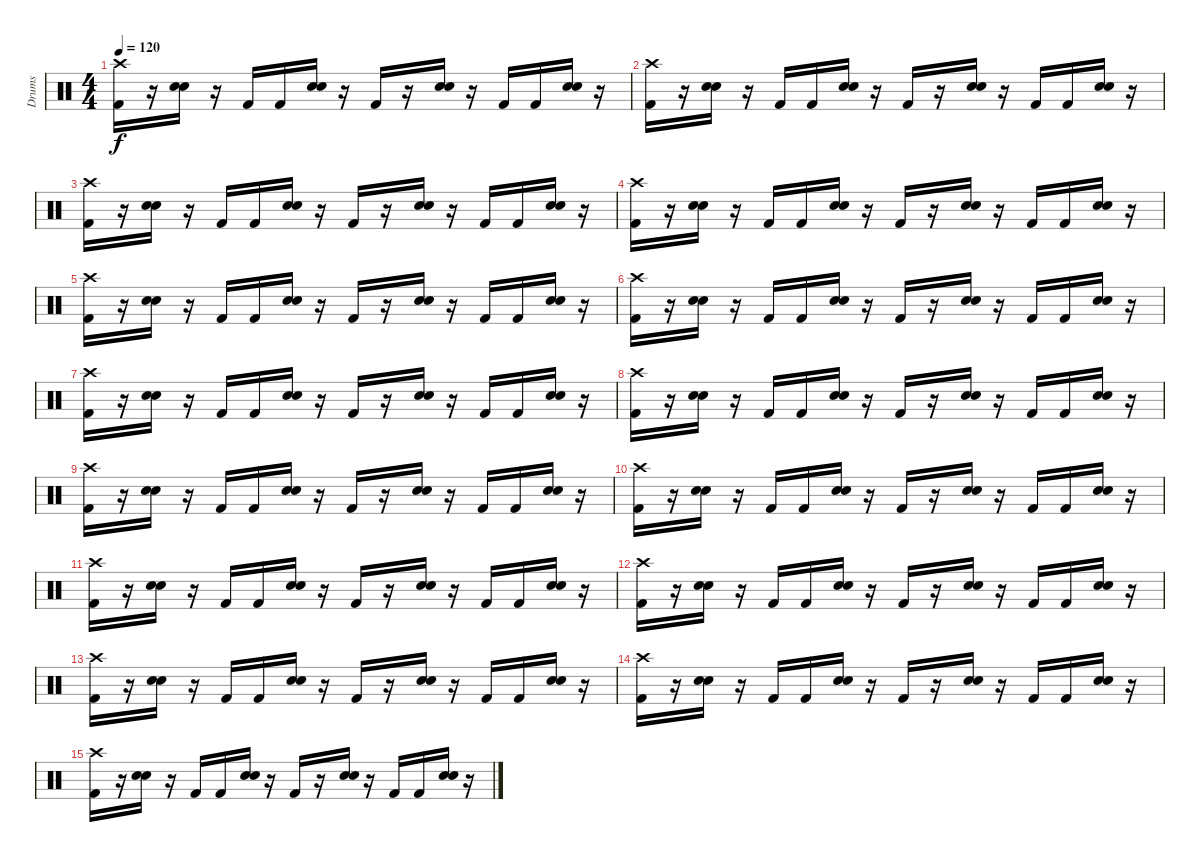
\track ("Drums" "Drums") {instrument percussion}
\staff {score}
\articulation defaults
\ts (4 4)
\tempo 120
\clef neutral
\ks c
("Crash high (hit)" "Kick (hit) 2").16{dy f} r.16 ("Snare (hit) 2" "Snare (hit) 2").16 r.16 "Kick (hit) 2".16 "Kick (hit) 2".16 ("Snare (hit) 2" "Snare (hit) 2").16 r.16 "Kick (hit) 2".16 r.16 ("Snare (hit) 2" "Snare (hit) 2").16 r.16 "Kick (hit) 2".16 "Kick (hit) 2".16 ("Snare (hit) 2" "Snare (hit) 2").16 r.16 |
("Crash high (hit)" "Kick (hit) 2").16 r.16 ("Snare (hit) 2" "Snare (hit) 2").16 r.16 "Kick (hit) 2".16 "Kick (hit) 2".16 ("Snare (hit) 2" "Snare (hit) 2").16 r.16 "Kick (hit) 2".16 r.16 ("Snare (hit) 2" "Snare (hit) 2").16 r.16 "Kick (hit) 2".16 "Kick (hit) 2".16 ("Snare (hit) 2" "Snare (hit) 2").16 r.16 |
("Crash high (hit)" "Kick (hit) 2").16 r.16 ("Snare (hit) 2" "Snare (hit) 2").16 r.16 "Kick (hit) 2".16 "Kick (hit) 2".16 ("Snare (hit) 2" "Snare (hit) 2").16 r.16 "Kick (hit) 2".16 r.16 ("Snare (hit) 2" "Snare (hit) 2").16 r.16 "Kick (hit) 2".16 "Kick (hit) 2".16 ("Snare (hit) 2" "Snare (hit) 2").16 r.16 |
("Crash high (hit)" "Kick (hit) 2").16 r.16 ("Snare (hit) 2" "Snare (hit) 2").16 r.16 "Kick (hit) 2".16 "Kick (hit) 2".16 ("Snare (hit) 2" "Snare (hit) 2").16 r.16 "Kick (hit) 2".16 r.16 ("Snare (hit) 2" "Snare (hit) 2").16 r.16 "Kick (hit) 2".16 "Kick (hit) 2".16 ("Snare (hit) 2" "Snare (hit) 2").16 r.16 |
("Crash high (hit)" "Kick (hit) 2").16 r.16 ("Snare (hit) 2" "Snare (hit) 2").16 r.16 "Kick (hit) 2".16 "Kick (hit) 2".16 ("Snare (hit) 2" "Snare (hit) 2").16 r.16 "Kick (hit) 2".16 r.16 ("Snare (hit) 2" "Snare (hit) 2").16 r.16 "Kick (hit) 2".16 "Kick (hit) 2".16 ("Snare (hit) 2" "Snare (hit) 2").16 r.16 |
("Crash high (hit)" "Kick (hit) 2").16 r.16 ("Snare (hit) 2" "Snare (hit) 2").16 r.16 "Kick (hit) 2".16 "Kick (hit) 2".16 ("Snare (hit) 2" "Snare (hit) 2").16 r.16 "Kick (hit) 2".16 r.16 ("Snare (hit) 2" "Snare (hit) 2").16 r.16 "Kick (hit) 2".16 "Kick (hit) 2".16 ("Snare (hit) 2" "Snare (hit) 2").16 r.16 |
("Crash high (hit)" "Kick (hit) 2").16 r.16 ("Snare (hit) 2" "Snare (hit) 2").16 r.16 "Kick (hit) 2".16 "Kick (hit) 2".16 ("Snare (hit) 2" "Snare (hit) 2").16 r.16 "Kick (hit) 2".16 r.16 ("Snare (hit) 2" "Snare (hit) 2").16 r.16 "Kick (hit) 2".16 "Kick (hit) 2".16 ("Snare (hit) 2" "Snare (hit) 2").16 r.16 |
("Crash high (hit)" "Kick (hit) 2").16 r.16 ("Snare (hit) 2" "Snare (hit) 2").16 r.16 "Kick (hit) 2".16 "Kick (hit) 2".16 ("Snare (hit) 2" "Snare (hit) 2").16 r.16 "Kick (hit) 2".16 r.16 ("Snare (hit) 2" "Snare (hit) 2").16 r.16 "Kick (hit) 2".16 "Kick (hit) 2".16 ("Snare (hit) 2" "Snare (hit) 2").16 r.16 |
("Crash high (hit)" "Kick (hit) 2").16 r.16 ("Snare (hit) 2" "Snare (hit) 2").16 r.16 "Kick (hit) 2".16 "Kick (hit) 2".16 ("Snare (hit) 2" "Snare (hit) 2").16 r.16 "Kick (hit) 2".16 r.16 ("Snare (hit) 2" "Snare (hit) 2").16 r.16 "Kick (hit) 2".16 "Kick (hit) 2".16 ("Snare (hit) 2" "Snare (hit) 2").16 r.16 |
("Crash high (hit)" "Kick (hit) 2").16 r.16 ("Snare (hit) 2" "Snare (hit) 2").16 r.16 "Kick (hit) 2".16 "Kick (hit) 2".16 ("Snare (hit) 2" "Snare (hit) 2").16 r.16 "Kick (hit) 2".16 r.16 ("Snare (hit) 2" "Snare (hit) 2").16 r.16 "Kick (hit) 2".16 "Kick (hit) 2".16 ("Snare (hit) 2" "Snare (hit) 2").16 r.16 |
("Crash high (hit)" "Kick (hit) 2").16 r.16 ("Snare (hit) 2" "Snare (hit) 2").16 r.16 "Kick (hit) 2".16 "Kick (hit) 2".16 ("Snare (hit) 2" "Snare (hit) 2").16 r.16 "Kick (hit) 2".16 r.16 ("Snare (hit) 2" "Snare (hit) 2").16 r.16 "Kick (hit) 2".16 "Kick (hit) 2".16 ("Snare (hit) 2" "Snare (hit) 2").16 r.16 |
("Crash high (hit)" "Kick (hit) 2").16 r.16 ("Snare (hit) 2" "Snare (hit) 2").16 r.16 "Kick (hit) 2".16 "Kick (hit) 2".16 ("Snare (hit) 2" "Snare (hit) 2").16 r.16 "Kick (hit) 2".16 r.16 ("Snare (hit) 2" "Snare (hit) 2").16 r.16 "Kick (hit) 2".16 "Kick (hit) 2".16 ("Snare (hit) 2" "Snare (hit) 2").16 r.16 |
("Crash high (hit)" "Kick (hit) 2").16 r.16 ("Snare (hit) 2" "Snare (hit) 2").16 r.16 "Kick (hit) 2".16 "Kick (hit) 2".16 ("Snare (hit) 2" "Snare (hit) 2").16 r.16 "Kick (hit) 2".16 r.16 ("Snare (hit) 2" "Snare (hit) 2").16 r.16 "Kick (hit) 2".16 "Kick (hit) 2".16 ("Snare (hit) 2" "Snare (hit) 2").16 r.16 |
("Crash high (hit)" "Kick (hit) 2").16 r.16 ("Snare (hit) 2" "Snare (hit) 2").16 r.16 "Kick (hit) 2".16 "Kick (hit) 2".16 ("Snare (hit) 2" "Snare (hit) 2").16 r.16 "Kick (hit) 2".16 r.16 ("Snare (hit) 2" "Snare (hit) 2").16 r.16 "Kick (hit) 2".16 "Kick (hit) 2".16 ("Snare (hit) 2" "Snare (hit) 2").16 r.16 |
("Crash high (hit)" "Kick (hit) 2").16 r.16 ("Snare (hit) 2" "Snare (hit) 2").16 r.16 "Kick (hit) 2".16 "Kick (hit) 2".16 ("Snare (hit) 2" "Snare (hit) 2").16 r.16 "Kick (hit) 2".16 r.16 ("Snare (hit) 2" "Snare (hit) 2").16 r.16 "Kick (hit) 2".16 "Kick (hit) 2".16 ("Snare (hit) 2" "Snare (hit) 2").16 r.16
